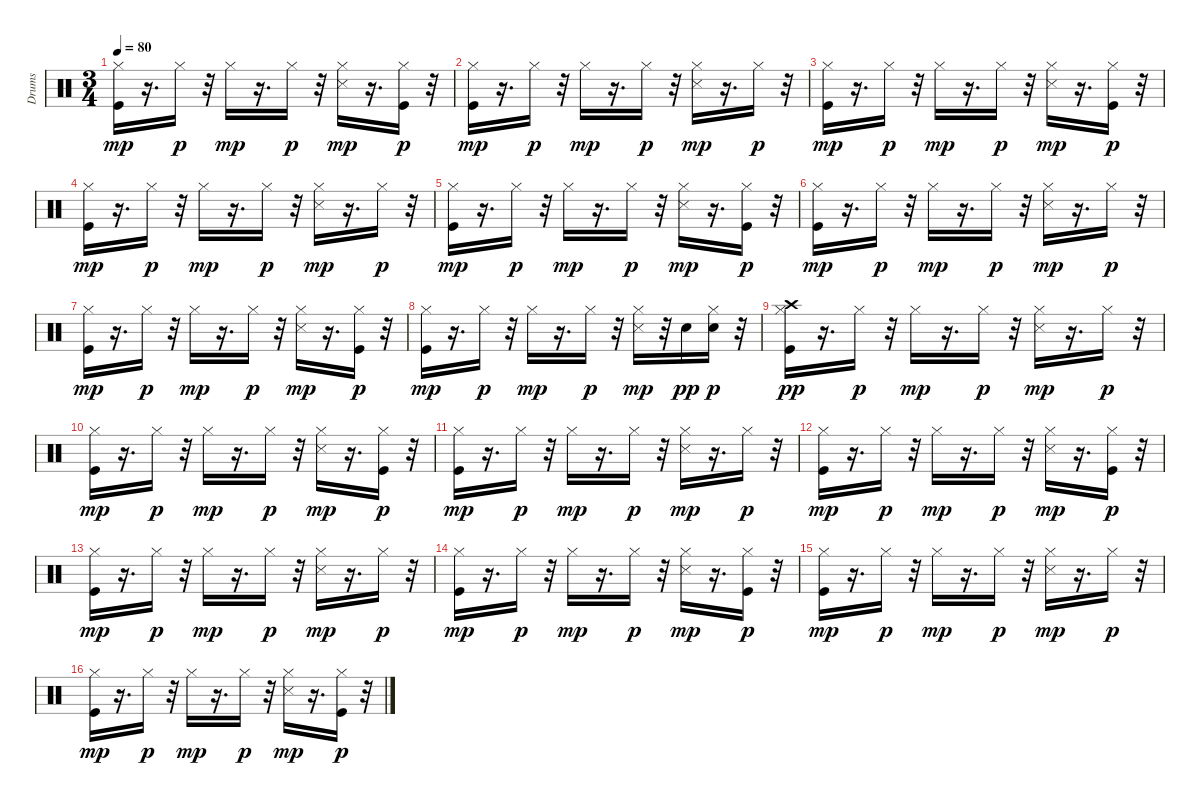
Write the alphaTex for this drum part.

\track ("Drums " "Drums ") {instrument percussion}
\staff {score}
\articulation defaults
\ts (3 4)
\tempo 80
\clef neutral
\ks c
("Kick (hit)" "Hi-Hat (closed)").16{dy mp} r.16{d} "Hi-Hat (closed)".16{dy p} r.32 "Hi-Hat (closed)".16{dy mp} r.16{d} "Hi-Hat (closed)".16{dy p} r.32 ("Hi-Hat (closed)" "Snare (side stick) 3").16{dy mp} r.16{d} ("Kick (hit)" "Hi-Hat (closed)").16{dy p} r.32 |
("Kick (hit)" "Hi-Hat (closed)").16{dy mp} r.16{d} "Hi-Hat (closed)".16{dy p} r.32 "Hi-Hat (closed)".16{dy mp} r.16{d} "Hi-Hat (closed)".16{dy p} r.32 ("Hi-Hat (closed)" "Snare (side stick) 3").16{dy mp} r.16{d} "Hi-Hat (closed)".16{dy p} r.32 |
("Kick (hit)" "Hi-Hat (closed)").16{dy mp} r.16{d} "Hi-Hat (closed)".16{dy p} r.32 "Hi-Hat (closed)".16{dy mp} r.16{d} "Hi-Hat (closed)".16{dy p} r.32 ("Hi-Hat (closed)" "Snare (side stick) 3").16{dy mp} r.16{d} ("Kick (hit)" "Hi-Hat (closed)").16{dy p} r.32 |
("Kick (hit)" "Hi-Hat (closed)").16{dy mp} r.16{d} "Hi-Hat (closed)".16{dy p} r.32 "Hi-Hat (closed)".16{dy mp} r.16{d} "Hi-Hat (closed)".16{dy p} r.32 ("Hi-Hat (closed)" "Snare (side stick) 3").16{dy mp} r.16{d} "Hi-Hat (closed)".16{dy p} r.32 |
("Kick (hit)" "Hi-Hat (closed)").16{dy mp} r.16{d} "Hi-Hat (closed)".16{dy p} r.32 "Hi-Hat (closed)".16{dy mp} r.16{d} "Hi-Hat (closed)".16{dy p} r.32 ("Hi-Hat (closed)" "Snare (side stick) 3").16{dy mp} r.16{d} ("Kick (hit)" "Hi-Hat (closed)").16{dy p} r.32 |
("Kick (hit)" "Hi-Hat (closed)").16{dy mp} r.16{d} "Hi-Hat (closed)".16{dy p} r.32 "Hi-Hat (closed)".16{dy mp} r.16{d} "Hi-Hat (closed)".16{dy p} r.32 ("Hi-Hat (closed)" "Snare (side stick) 3").16{dy mp} r.16{d} "Hi-Hat (closed)".16{dy p} r.32 |
("Kick (hit)" "Hi-Hat (closed)").16{dy mp} r.16{d} "Hi-Hat (closed)".16{dy p} r.32 "Hi-Hat (closed)".16{dy mp} r.16{d} "Hi-Hat (closed)".16{dy p} r.32 ("Hi-Hat (closed)" "Snare (side stick) 3").16{dy mp} r.16{d} ("Kick (hit)" "Hi-Hat (closed)").16{dy p} r.32 |
("Kick (hit)" "Hi-Hat (closed)").16{dy mp} r.16{d} "Hi-Hat (closed)".16{dy p} r.32 "Hi-Hat (closed)".16{dy mp} r.16{d} "Hi-Hat (closed)".16{dy p} r.32 ("Hi-Hat (closed)" "Snare (side stick) 3").16{dy mp} r.32 "Snare (hit) 2".16{dy pp} ("Snare (hit) 2" "Hi-Hat (closed)").16{dy p} r.32 |
("Kick (hit)" "Hi-Hat (closed)" "Crash high (hit)").16{dy pp} r.16{d} "Hi-Hat (closed)".16{dy p} r.32 "Hi-Hat (closed)".16{dy mp} r.16{d} "Hi-Hat (closed)".16{dy p} r.32 ("Hi-Hat (closed)" "Snare (side stick) 3").16{dy mp} r.16{d} "Hi-Hat (closed)".16{dy p} r.32 |
("Kick (hit)" "Hi-Hat (closed)").16{dy mp} r.16{d} "Hi-Hat (closed)".16{dy p} r.32 "Hi-Hat (closed)".16{dy mp} r.16{d} "Hi-Hat (closed)".16{dy p} r.32 ("Hi-Hat (closed)" "Snare (side stick) 3").16{dy mp} r.16{d} ("Kick (hit)" "Hi-Hat (closed)").16{dy p} r.32 |
("Kick (hit)" "Hi-Hat (closed)").16{dy mp} r.16{d} "Hi-Hat (closed)".16{dy p} r.32 "Hi-Hat (closed)".16{dy mp} r.16{d} "Hi-Hat (closed)".16{dy p} r.32 ("Hi-Hat (closed)" "Snare (side stick) 3").16{dy mp} r.16{d} "Hi-Hat (closed)".16{dy p} r.32 |
("Kick (hit)" "Hi-Hat (closed)").16{dy mp} r.16{d} "Hi-Hat (closed)".16{dy p} r.32 "Hi-Hat (closed)".16{dy mp} r.16{d} "Hi-Hat (closed)".16{dy p} r.32 ("Hi-Hat (closed)" "Snare (side stick) 3").16{dy mp} r.16{d} ("Kick (hit)" "Hi-Hat (closed)").16{dy p} r.32 |
("Kick (hit)" "Hi-Hat (closed)").16{dy mp} r.16{d} "Hi-Hat (closed)".16{dy p} r.32 "Hi-Hat (closed)".16{dy mp} r.16{d} "Hi-Hat (closed)".16{dy p} r.32 ("Hi-Hat (closed)" "Snare (side stick) 3").16{dy mp} r.16{d} "Hi-Hat (closed)".16{dy p} r.32 |
("Kick (hit)" "Hi-Hat (closed)").16{dy mp} r.16{d} "Hi-Hat (closed)".16{dy p} r.32 "Hi-Hat (closed)".16{dy mp} r.16{d} "Hi-Hat (closed)".16{dy p} r.32 ("Hi-Hat (closed)" "Snare (side stick) 3").16{dy mp} r.16{d} ("Kick (hit)" "Hi-Hat (closed)").16{dy p} r.32 |
("Kick (hit)" "Hi-Hat (closed)").16{dy mp} r.16{d} "Hi-Hat (closed)".16{dy p} r.32 "Hi-Hat (closed)".16{dy mp} r.16{d} "Hi-Hat (closed)".16{dy p} r.32 ("Hi-Hat (closed)" "Snare (side stick) 3").16{dy mp} r.16{d} "Hi-Hat (closed)".16{dy p} r.32 |
("Kick (hit)" "Hi-Hat (closed)").16{dy mp} r.16{d} "Hi-Hat (closed)".16{dy p} r.32 "Hi-Hat (closed)".16{dy mp} r.16{d} "Hi-Hat (closed)".16{dy p} r.32 ("Hi-Hat (closed)" "Snare (side stick) 3").16{dy mp} r.16{d} ("Kick (hit)" "Hi-Hat (closed)").16{dy p} r.32
